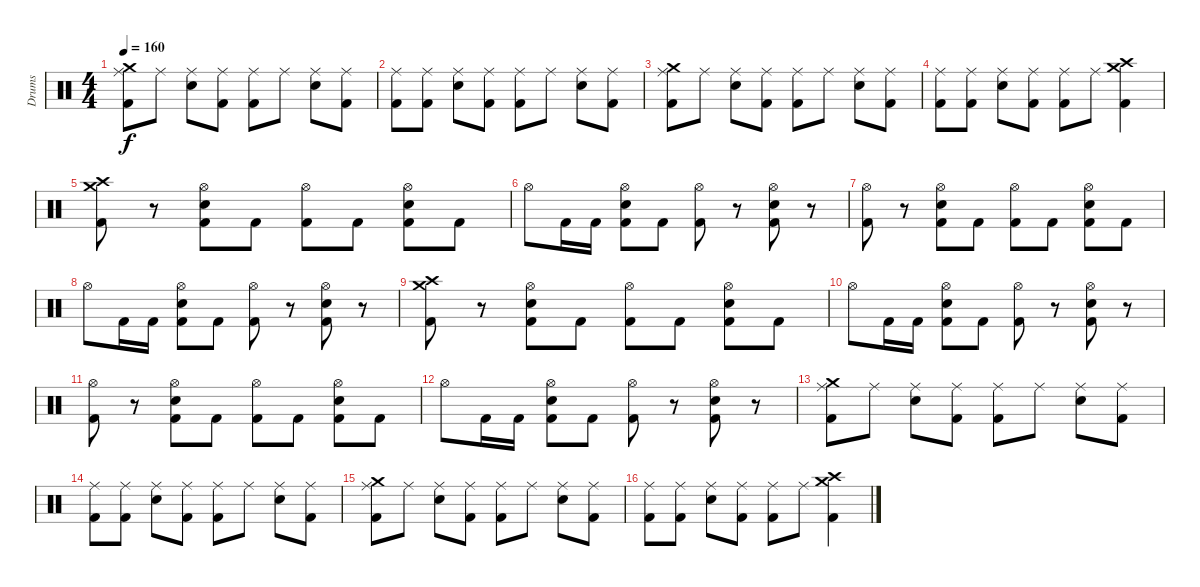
\track ("Drums" "Drums") {instrument percussion}
\staff {score}
\articulation defaults
\ts (4 4)
\tempo 160
\clef neutral
\ks c
("Ride (middle)" "Crash medium (hit)" "Kick (hit) 2").8{dy f} "Ride (middle)".8 ("Ride (middle)" "Snare (hit) 2").8 ("Ride (middle)" "Kick (hit) 2").8 ("Ride (middle)" "Kick (hit) 2").8 "Ride (middle)".8 ("Ride (middle)" "Snare (hit) 2").8 ("Ride (middle)" "Kick (hit) 2").8 |
("Ride (middle)" "Kick (hit) 2").8 ("Ride (middle)" "Kick (hit) 2").8 ("Ride (middle)" "Snare (hit) 2").8 ("Ride (middle)" "Kick (hit) 2").8 ("Ride (middle)" "Kick (hit) 2").8 "Ride (middle)".8 ("Ride (middle)" "Snare (hit) 2").8 ("Ride (middle)" "Kick (hit) 2").8 |
("Ride (middle)" "Crash medium (hit)" "Kick (hit) 2").8 "Ride (middle)".8 ("Ride (middle)" "Snare (hit) 2").8 ("Ride (middle)" "Kick (hit) 2").8 ("Ride (middle)" "Kick (hit) 2").8 "Ride (middle)".8 ("Ride (middle)" "Snare (hit) 2").8 ("Ride (middle)" "Kick (hit) 2").8 |
("Ride (middle)" "Kick (hit) 2").8 ("Ride (middle)" "Kick (hit) 2").8 ("Ride (middle)" "Snare (hit) 2").8 ("Ride (middle)" "Kick (hit) 2").8 ("Ride (middle)" "Kick (hit) 2").8 "Ride (middle)".8 ("Crash medium (hit)" "Crash high (hit)" "Kick (hit) 2").4 |
("Crash medium (hit)" "Crash high (hit)" "Kick (hit) 2").8 r.8 ("Hi-Hat (open)" "Snare (hit) 2" "Kick (hit) 2").8 "Kick (hit) 2".8 ("Hi-Hat (open)" "Kick (hit) 2").8 "Kick (hit) 2".8 ("Hi-Hat (open)" "Snare (hit) 2" "Kick (hit) 2").8 "Kick (hit) 2".8 |
"Hi-Hat (open)".8 "Kick (hit) 2".16 "Kick (hit) 2".16 ("Hi-Hat (open)" "Snare (hit) 2" "Kick (hit) 2").8 "Kick (hit) 2".8 ("Hi-Hat (open)" "Kick (hit) 2").8 r.8 ("Hi-Hat (open)" "Snare (hit) 2" "Kick (hit) 2").8 r.8 |
("Hi-Hat (open)" "Kick (hit) 2").8 r.8 ("Hi-Hat (open)" "Snare (hit) 2" "Kick (hit) 2").8 "Kick (hit) 2".8 ("Hi-Hat (open)" "Kick (hit) 2").8 "Kick (hit) 2".8 ("Hi-Hat (open)" "Snare (hit) 2" "Kick (hit) 2").8 "Kick (hit) 2".8 |
"Hi-Hat (open)".8 "Kick (hit) 2".16 "Kick (hit) 2".16 ("Hi-Hat (open)" "Snare (hit) 2" "Kick (hit) 2").8 "Kick (hit) 2".8 ("Hi-Hat (open)" "Kick (hit) 2").8 r.8 ("Hi-Hat (open)" "Snare (hit) 2" "Kick (hit) 2").8 r.8 |
("Crash medium (hit)" "Crash high (hit)" "Kick (hit) 2").8 r.8 ("Hi-Hat (open)" "Snare (hit) 2" "Kick (hit) 2").8 "Kick (hit) 2".8 ("Hi-Hat (open)" "Kick (hit) 2").8 "Kick (hit) 2".8 ("Hi-Hat (open)" "Snare (hit) 2" "Kick (hit) 2").8 "Kick (hit) 2".8 |
"Hi-Hat (open)".8 "Kick (hit) 2".16 "Kick (hit) 2".16 ("Hi-Hat (open)" "Snare (hit) 2" "Kick (hit) 2").8 "Kick (hit) 2".8 ("Hi-Hat (open)" "Kick (hit) 2").8 r.8 ("Hi-Hat (open)" "Snare (hit) 2" "Kick (hit) 2").8 r.8 |
("Hi-Hat (open)" "Kick (hit) 2").8 r.8 ("Hi-Hat (open)" "Snare (hit) 2" "Kick (hit) 2").8 "Kick (hit) 2".8 ("Hi-Hat (open)" "Kick (hit) 2").8 "Kick (hit) 2".8 ("Hi-Hat (open)" "Snare (hit) 2" "Kick (hit) 2").8 "Kick (hit) 2".8 |
"Hi-Hat (open)".8 "Kick (hit) 2".16 "Kick (hit) 2".16 ("Hi-Hat (open)" "Snare (hit) 2" "Kick (hit) 2").8 "Kick (hit) 2".8 ("Hi-Hat (open)" "Kick (hit) 2").8 r.8 ("Hi-Hat (open)" "Snare (hit) 2" "Kick (hit) 2").8 r.8 |
("Ride (middle)" "Crash medium (hit)" "Kick (hit) 2").8 "Ride (middle)".8 ("Ride (middle)" "Snare (hit) 2").8 ("Ride (middle)" "Kick (hit) 2").8 ("Ride (middle)" "Kick (hit) 2").8 "Ride (middle)".8 ("Ride (middle)" "Snare (hit) 2").8 ("Ride (middle)" "Kick (hit) 2").8 |
("Ride (middle)" "Kick (hit) 2").8 ("Ride (middle)" "Kick (hit) 2").8 ("Ride (middle)" "Snare (hit) 2").8 ("Ride (middle)" "Kick (hit) 2").8 ("Ride (middle)" "Kick (hit) 2").8 "Ride (middle)".8 ("Ride (middle)" "Snare (hit) 2").8 ("Ride (middle)" "Kick (hit) 2").8 |
("Ride (middle)" "Crash medium (hit)" "Kick (hit) 2").8 "Ride (middle)".8 ("Ride (middle)" "Snare (hit) 2").8 ("Ride (middle)" "Kick (hit) 2").8 ("Ride (middle)" "Kick (hit) 2").8 "Ride (middle)".8 ("Ride (middle)" "Snare (hit) 2").8 ("Ride (middle)" "Kick (hit) 2").8 |
("Ride (middle)" "Kick (hit) 2").8 ("Ride (middle)" "Kick (hit) 2").8 ("Ride (middle)" "Snare (hit) 2").8 ("Ride (middle)" "Kick (hit) 2").8 ("Ride (middle)" "Kick (hit) 2").8 "Ride (middle)".8 ("Crash medium (hit)" "Crash high (hit)" "Kick (hit) 2").4
